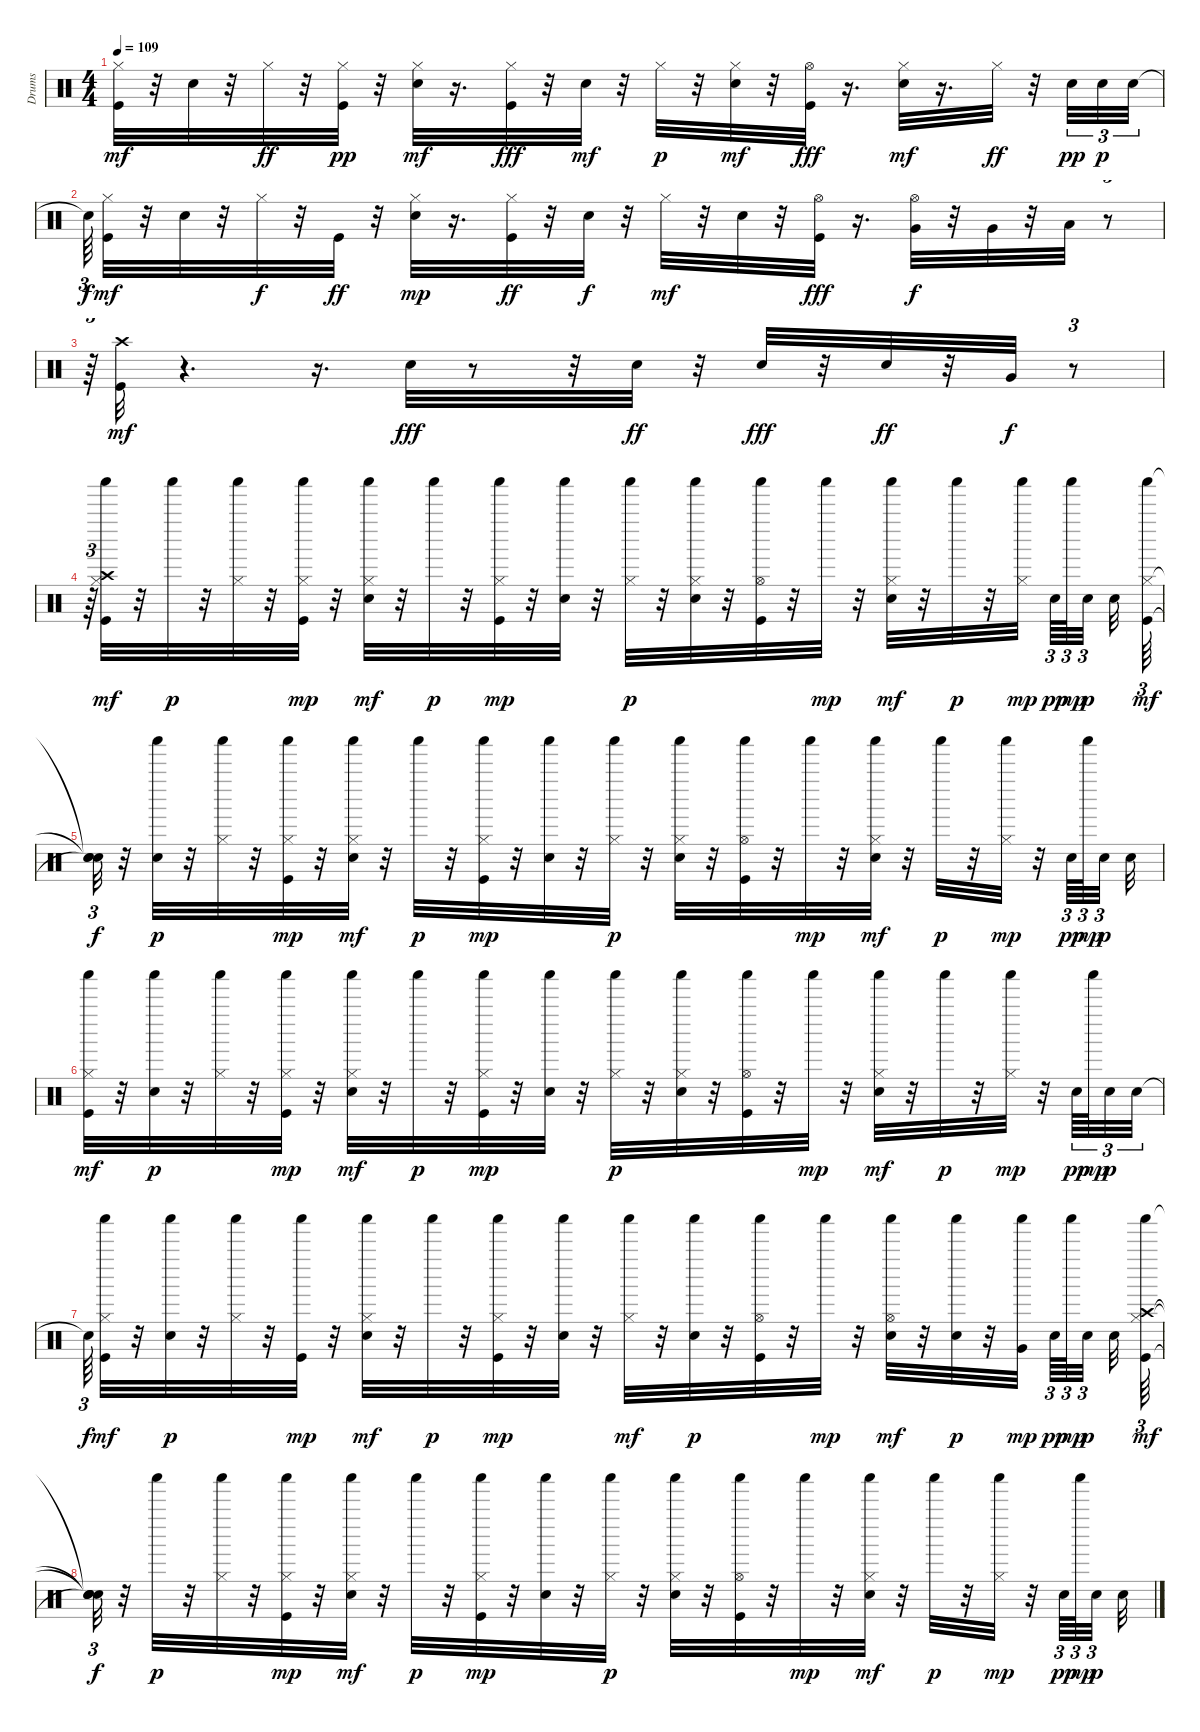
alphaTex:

\track ("Drums" "Drums") {instrument percussion}
\staff {score}
\articulation defaults
\ts (4 4)
\tempo 109
\clef neutral
\ks c
("Kick (hit)" "Hi-Hat (closed)").32{dy mf} r.32 "Snare (hit) 2".32 r.32 "Hi-Hat (closed)".32{dy ff} r.32 ("Kick (hit)" "Hi-Hat (closed)").32{dy pp} r.32 ("Snare (hit) 2" "Hi-Hat (closed)").32{dy mf} r.16{d} ("Kick (hit)" "Hi-Hat (closed)").32{dy fff} r.32 "Snare (hit) 2".32{dy mf} r.32 "Hi-Hat (closed)".32{dy p} r.32 ("Snare (hit) 2" "Hi-Hat (closed)").32{dy mf} r.32 ("Kick (hit)" "Hi-Hat (open)").32{dy fff} r.16{d} ("Snare (hit) 2" "Hi-Hat (closed)").32{dy mf} r.16{d} "Hi-Hat (closed)".32{dy ff} r.32 "Snare (hit) 2".32{tu (3 2) dy pp} "Snare (hit) 2".32{tu (3 2) dy p} "Snare (hit) 2".32{tu (3 2)} |
"Snare (hit)"{t}.64{tu (3 2) dy f} ("Kick (hit)" "Hi-Hat (closed)").32{dy mf} r.32 "Snare (hit) 2".32 r.32 "Hi-Hat (closed)".32{dy f} r.32 "Kick (hit)".32{dy ff} r.32 ("Snare (hit) 2" "Hi-Hat (closed)").32{dy mp} r.16{d} ("Kick (hit)" "Hi-Hat (closed)").32{dy ff} r.32 "Snare (hit) 2".32{dy f} r.32 "Hi-Hat (closed)".32{dy mf} r.32 "Snare (hit) 2".32 r.32 ("Kick (hit)" "Hi-Hat (open)").32{dy fff} r.16{d} ("Very Low Tom (hit)" "Hi-Hat (open)").32{dy f} r.32 "Very Low Tom (hit)".32 r.32 "Low Floor Tom (hit)".32 r.8{tu (3 2)} |
r.64{tu (3 2)} ("Kick (hit)" "Crash high (hit)").32{dy mf} r.4{d} r.16{d} "Snare (hit) 2".32{dy fff} r.8 r.32 "Snare (hit) 2".32{dy ff} r.32 "Snare (hit) 2".32{dy fff} r.32 "Snare (hit) 2".32{dy ff} r.32 "Very Low Tom (hit)".32{dy f} r.8{tu (3 2)} |
r.64{tu (3 2)} ("Kick (hit)" "Crash high (hit)" "Hi-Hat (closed)" "Shaker (hit)").32{dy mf} r.32 "Shaker (hit)".32{dy p} r.32 ("Hi-Hat (closed)" "Shaker (hit)").32 r.32 ("Kick (hit)" "Hi-Hat (closed)" "Shaker (hit)").32{dy mp} r.32 ("Snare (hit) 2" "Hi-Hat (closed)" "Shaker (hit)").32{dy mf} r.32 "Shaker (hit)".32{dy p} r.32 ("Kick (hit)" "Hi-Hat (closed)" "Shaker (hit)").32{dy mp} r.32 ("Snare (hit) 2" "Shaker (hit)").32 r.32 ("Hi-Hat (closed)" "Shaker (hit)").32{dy p} r.32 ("Snare (hit) 2" "Hi-Hat (closed)" "Shaker (hit)").32 r.32 ("Kick (hit)" "Hi-Hat (open)" "Shaker (hit)").32 r.32 "Shaker (hit)".32{dy mp} r.32 ("Snare (hit) 2" "Hi-Hat (closed)" "Shaker (hit)").32{dy mf} r.32 "Shaker (hit)".32{dy p} r.32 ("Hi-Hat (closed)" "Shaker (hit)").32{dy mp beam splitsecondary} "Snare (hit) 2".64{tu (3 2) dy pp} "Shaker (hit)".64{tu (3 2) dy mp} "Snare (hit) 2".32{tu (3 2) dy p beam splitsecondary} "Snare (hit) 2".32 ("Kick (hit)" "Hi-Hat (closed)" "Shaker (hit)").64{tu (3 2) dy mf} |
("Snare (hit)"{t} "Snare (hit)"{t} "Snare (hit)"{t}).32{tu (3 2) dy f} r.32 ("Snare (hit) 2" "Shaker (hit)").32{dy p} r.32 ("Hi-Hat (closed)" "Shaker (hit)").32 r.32 ("Kick (hit)" "Hi-Hat (closed)" "Shaker (hit)").32{dy mp} r.32 ("Snare (hit) 2" "Hi-Hat (closed)" "Shaker (hit)").32{dy mf} r.32 "Shaker (hit)".32{dy p} r.32 ("Kick (hit)" "Hi-Hat (closed)" "Shaker (hit)").32{dy mp} r.32 ("Snare (hit) 2" "Shaker (hit)").32 r.32 ("Hi-Hat (closed)" "Shaker (hit)").32{dy p} r.32 ("Snare (hit) 2" "Hi-Hat (closed)" "Shaker (hit)").32 r.32 ("Kick (hit)" "Hi-Hat (open)" "Shaker (hit)").32 r.32 "Shaker (hit)".32{dy mp} r.32 ("Snare (hit) 2" "Hi-Hat (closed)" "Shaker (hit)").32{dy mf} r.32 "Shaker (hit)".32{dy p} r.32 ("Hi-Hat (closed)" "Shaker (hit)").32{dy mp} r.32 "Snare (hit) 2".64{tu (3 2) dy pp} "Shaker (hit)".64{tu (3 2) dy mp} "Snare (hit) 2".32{tu (3 2) dy p beam splitsecondary} "Snare (hit) 2".32 |
("Kick (hit)" "Hi-Hat (closed)" "Shaker (hit)").32{dy mf} r.32 ("Snare (hit) 2" "Shaker (hit)").32{dy p} r.32 ("Hi-Hat (closed)" "Shaker (hit)").32 r.32 ("Kick (hit)" "Hi-Hat (closed)" "Shaker (hit)").32{dy mp} r.32 ("Snare (hit) 2" "Hi-Hat (closed)" "Shaker (hit)").32{dy mf} r.32 "Shaker (hit)".32{dy p} r.32 ("Kick (hit)" "Hi-Hat (closed)" "Shaker (hit)").32{dy mp} r.32 ("Snare (hit) 2" "Shaker (hit)").32 r.32 ("Hi-Hat (closed)" "Shaker (hit)").32{dy p} r.32 ("Snare (hit) 2" "Hi-Hat (closed)" "Shaker (hit)").32 r.32 ("Kick (hit)" "Hi-Hat (open)" "Shaker (hit)").32 r.32 "Shaker (hit)".32{dy mp} r.32 ("Snare (hit) 2" "Hi-Hat (closed)" "Shaker (hit)").32{dy mf} r.32 "Shaker (hit)".32{dy p} r.32 ("Hi-Hat (closed)" "Shaker (hit)").32{dy mp} r.32 "Snare (hit) 2".64{tu (3 2) dy pp} "Shaker (hit)".64{tu (3 2) dy mp} "Snare (hit) 2".32{tu (3 2) dy p} "Snare (hit) 2".32{tu (3 2)} |
"Snare (hit)"{t}.64{tu (3 2) dy f} ("Kick (hit)" "Hi-Hat (closed)" "Shaker (hit)").32{dy mf} r.32 ("Snare (hit) 2" "Shaker (hit)").32{dy p} r.32 ("Hi-Hat (closed)" "Shaker (hit)").32 r.32 ("Kick (hit)" "Shaker (hit)").32{dy mp} r.32 ("Snare (hit) 2" "Hi-Hat (closed)" "Shaker (hit)").32{dy mf} r.32 "Shaker (hit)".32{dy p} r.32 ("Kick (hit)" "Hi-Hat (closed)" "Shaker (hit)").32{dy mp} r.32 ("Snare (hit) 2" "Shaker (hit)").32 r.32 ("Hi-Hat (closed)" "Shaker (hit)").32{dy mf} r.32 ("Snare (hit) 2" "Shaker (hit)").32{dy p} r.32 ("Kick (hit)" "Hi-Hat (open)" "Shaker (hit)").32 r.32 "Shaker (hit)".32{dy mp} r.32 ("Snare (hit) 2" "Hi-Hat (open)" "Shaker (hit)").32{dy mf} r.32 ("Snare (hit) 2" "Shaker (hit)").32{dy p} r.32 ("Very Low Tom (hit)" "Shaker (hit)").32{dy mp beam splitsecondary} "Snare (hit) 2".64{tu (3 2) dy pp} "Shaker (hit)".64{tu (3 2) dy mp} "Snare (hit) 2".32{tu (3 2) dy p beam splitsecondary} "Snare (hit) 2".32 ("Kick (hit)" "Crash high (hit)" "Hi-Hat (closed)" "Shaker (hit)").64{tu (3 2) dy mf} |
("Snare (hit)"{t} "Snare (hit)"{t} "Snare (hit)"{t} "Snare (hit)"{t}).32{tu (3 2) dy f} r.32 "Shaker (hit)".32{dy p} r.32 ("Hi-Hat (closed)" "Shaker (hit)").32 r.32 ("Kick (hit)" "Hi-Hat (closed)" "Shaker (hit)").32{dy mp} r.32 ("Snare (hit) 2" "Hi-Hat (closed)" "Shaker (hit)").32{dy mf} r.32 "Shaker (hit)".32{dy p} r.32 ("Kick (hit)" "Hi-Hat (closed)" "Shaker (hit)").32{dy mp} r.32 ("Snare (hit) 2" "Shaker (hit)").32 r.32 ("Hi-Hat (closed)" "Shaker (hit)").32{dy p} r.32 ("Snare (hit) 2" "Hi-Hat (closed)" "Shaker (hit)").32 r.32 ("Kick (hit)" "Hi-Hat (open)" "Shaker (hit)").32 r.32 "Shaker (hit)".32{dy mp} r.32 ("Snare (hit) 2" "Hi-Hat (closed)" "Shaker (hit)").32{dy mf} r.32 "Shaker (hit)".32{dy p} r.32 ("Hi-Hat (closed)" "Shaker (hit)").32{dy mp} r.32 "Snare (hit) 2".64{tu (3 2) dy pp} "Shaker (hit)".64{tu (3 2) dy mp} "Snare (hit) 2".32{tu (3 2) dy p beam splitsecondary} "Snare (hit) 2".32
